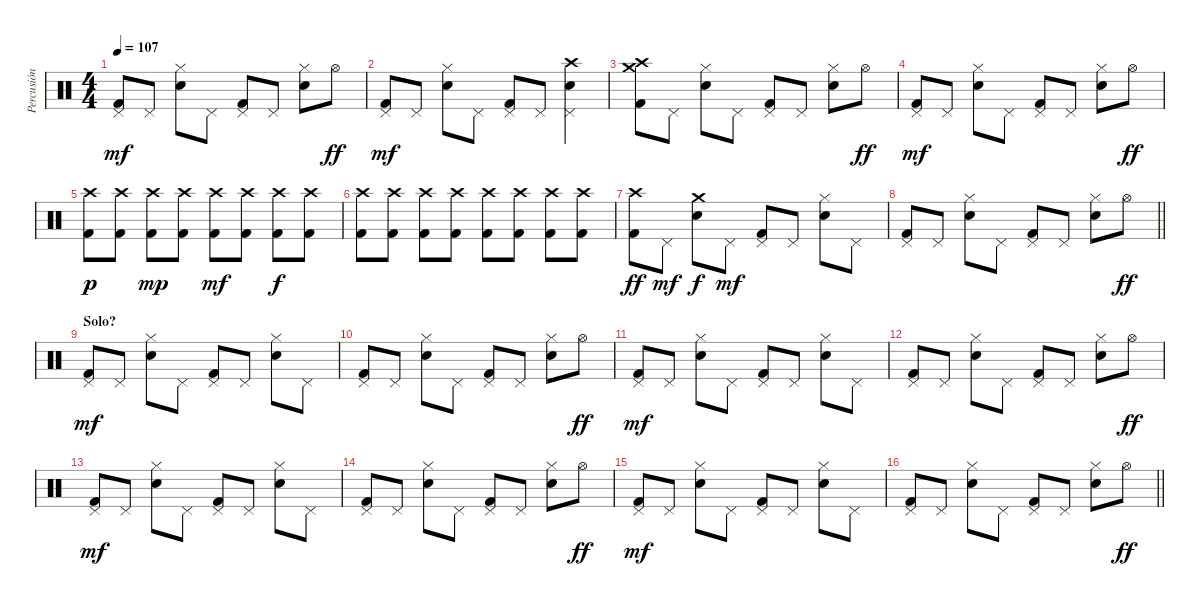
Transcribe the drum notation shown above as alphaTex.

\track ("Percusión" "Percusión") {instrument percussion}
\staff {score}
\articulation defaults
\ts (4 4)
\tempo 107
\clef neutral
\ks c
("Pedal Hi-Hat (hit)" "Kick (hit) 2").8{dy mf} "Pedal Hi-Hat (hit)".8 ("Hi-Hat (closed)" "Snare (hit) 2").8 "Pedal Hi-Hat (hit)".8 ("Pedal Hi-Hat (hit)" "Kick (hit) 2").8 "Pedal Hi-Hat (hit)".8 ("Hi-Hat (closed)" "Snare (hit) 2").8 "Hi-Hat (open)".8{dy ff} |
("Pedal Hi-Hat (hit)" "Kick (hit) 2").8{dy mf} "Pedal Hi-Hat (hit)".8 ("Hi-Hat (closed)" "Snare (hit) 2").8 "Pedal Hi-Hat (hit)".8 ("Pedal Hi-Hat (hit)" "Kick (hit) 2").8 "Pedal Hi-Hat (hit)".8 ("Crash high (hit)" "Pedal Hi-Hat (hit)" "Snare (hit) 2").4 |
("Crash medium (hit)" "Crash high (hit)" "Kick (hit) 2").8 "Pedal Hi-Hat (hit)".8 ("Hi-Hat (closed)" "Snare (hit) 2").8 "Pedal Hi-Hat (hit)".8 ("Pedal Hi-Hat (hit)" "Kick (hit) 2").8 "Pedal Hi-Hat (hit)".8 ("Hi-Hat (closed)" "Snare (hit) 2").8 "Hi-Hat (open)".8{dy ff} |
("Pedal Hi-Hat (hit)" "Kick (hit) 2").8{dy mf} "Pedal Hi-Hat (hit)".8 ("Hi-Hat (closed)" "Snare (hit) 2").8 "Pedal Hi-Hat (hit)".8 ("Pedal Hi-Hat (hit)" "Kick (hit) 2").8 "Pedal Hi-Hat (hit)".8 ("Hi-Hat (closed)" "Snare (hit) 2").8 "Hi-Hat (open)".8{dy ff} |
("Crash high (hit)" "Kick (hit) 2").8{dy p} ("Crash high (hit)" "Kick (hit) 2").8 ("Crash high (hit)" "Kick (hit) 2").8{dy mp} ("Crash high (hit)" "Kick (hit) 2").8 ("Crash high (hit)" "Kick (hit) 2").8{dy mf} ("Crash high (hit)" "Kick (hit) 2").8 ("Crash high (hit)" "Kick (hit) 2").8{dy f} ("Crash high (hit)" "Kick (hit) 2").8 |
("Crash high (hit)" "Kick (hit) 2").8 ("Crash high (hit)" "Kick (hit) 2").8 ("Crash high (hit)" "Kick (hit) 2").8 ("Crash high (hit)" "Kick (hit) 2").8 ("Crash high (hit)" "Kick (hit) 2").8 ("Crash high (hit)" "Kick (hit) 2").8 ("Crash high (hit)" "Kick (hit) 2").8 ("Crash high (hit)" "Kick (hit) 2").8 |
("Crash high (hit)" "Kick (hit) 2").8{dy ff} "Pedal Hi-Hat (hit)".8{dy mf} ("Crash medium (hit)" "Snare (hit) 2").8{dy f} "Pedal Hi-Hat (hit)".8{dy mf} ("Pedal Hi-Hat (hit)" "Kick (hit) 2").8 "Pedal Hi-Hat (hit)".8 ("Hi-Hat (closed)" "Snare (hit) 2").8 "Pedal Hi-Hat (hit)".8 |
\barLineRight lightlight
("Pedal Hi-Hat (hit)" "Kick (hit) 2").8 "Pedal Hi-Hat (hit)".8 ("Hi-Hat (closed)" "Snare (hit) 2").8 "Pedal Hi-Hat (hit)".8 ("Pedal Hi-Hat (hit)" "Kick (hit) 2").8 "Pedal Hi-Hat (hit)".8 ("Hi-Hat (closed)" "Snare (hit) 2").8 "Hi-Hat (open)".8{dy ff} |
\section ("" "Solo?")
("Pedal Hi-Hat (hit)" "Kick (hit) 2").8{dy mf} "Pedal Hi-Hat (hit)".8 ("Hi-Hat (closed)" "Snare (hit) 2").8 "Pedal Hi-Hat (hit)".8 ("Pedal Hi-Hat (hit)" "Kick (hit) 2").8 "Pedal Hi-Hat (hit)".8 ("Hi-Hat (closed)" "Snare (hit) 2").8 "Pedal Hi-Hat (hit)".8 |
("Pedal Hi-Hat (hit)" "Kick (hit) 2").8 "Pedal Hi-Hat (hit)".8 ("Hi-Hat (closed)" "Snare (hit) 2").8 "Pedal Hi-Hat (hit)".8 ("Pedal Hi-Hat (hit)" "Kick (hit) 2").8 "Pedal Hi-Hat (hit)".8 ("Hi-Hat (closed)" "Snare (hit) 2").8 "Hi-Hat (open)".8{dy ff} |
("Pedal Hi-Hat (hit)" "Kick (hit) 2").8{dy mf} "Pedal Hi-Hat (hit)".8 ("Hi-Hat (closed)" "Snare (hit) 2").8 "Pedal Hi-Hat (hit)".8 ("Pedal Hi-Hat (hit)" "Kick (hit) 2").8 "Pedal Hi-Hat (hit)".8 ("Hi-Hat (closed)" "Snare (hit) 2").8 "Pedal Hi-Hat (hit)".8 |
("Pedal Hi-Hat (hit)" "Kick (hit) 2").8 "Pedal Hi-Hat (hit)".8 ("Hi-Hat (closed)" "Snare (hit) 2").8 "Pedal Hi-Hat (hit)".8 ("Pedal Hi-Hat (hit)" "Kick (hit) 2").8 "Pedal Hi-Hat (hit)".8 ("Hi-Hat (closed)" "Snare (hit) 2").8 "Hi-Hat (open)".8{dy ff} |
("Pedal Hi-Hat (hit)" "Kick (hit) 2").8{dy mf} "Pedal Hi-Hat (hit)".8 ("Hi-Hat (closed)" "Snare (hit) 2").8 "Pedal Hi-Hat (hit)".8 ("Pedal Hi-Hat (hit)" "Kick (hit) 2").8 "Pedal Hi-Hat (hit)".8 ("Hi-Hat (closed)" "Snare (hit) 2").8 "Pedal Hi-Hat (hit)".8 |
("Pedal Hi-Hat (hit)" "Kick (hit) 2").8 "Pedal Hi-Hat (hit)".8 ("Hi-Hat (closed)" "Snare (hit) 2").8 "Pedal Hi-Hat (hit)".8 ("Pedal Hi-Hat (hit)" "Kick (hit) 2").8 "Pedal Hi-Hat (hit)".8 ("Hi-Hat (closed)" "Snare (hit) 2").8 "Hi-Hat (open)".8{dy ff} |
("Pedal Hi-Hat (hit)" "Kick (hit) 2").8{dy mf} "Pedal Hi-Hat (hit)".8 ("Hi-Hat (closed)" "Snare (hit) 2").8 "Pedal Hi-Hat (hit)".8 ("Pedal Hi-Hat (hit)" "Kick (hit) 2").8 "Pedal Hi-Hat (hit)".8 ("Hi-Hat (closed)" "Snare (hit) 2").8 "Pedal Hi-Hat (hit)".8 |
\barLineRight lightlight
("Pedal Hi-Hat (hit)" "Kick (hit) 2").8 "Pedal Hi-Hat (hit)".8 ("Hi-Hat (closed)" "Snare (hit) 2").8 "Pedal Hi-Hat (hit)".8 ("Pedal Hi-Hat (hit)" "Kick (hit) 2").8 "Pedal Hi-Hat (hit)".8 ("Hi-Hat (closed)" "Snare (hit) 2").8 "Hi-Hat (open)".8{dy ff}
